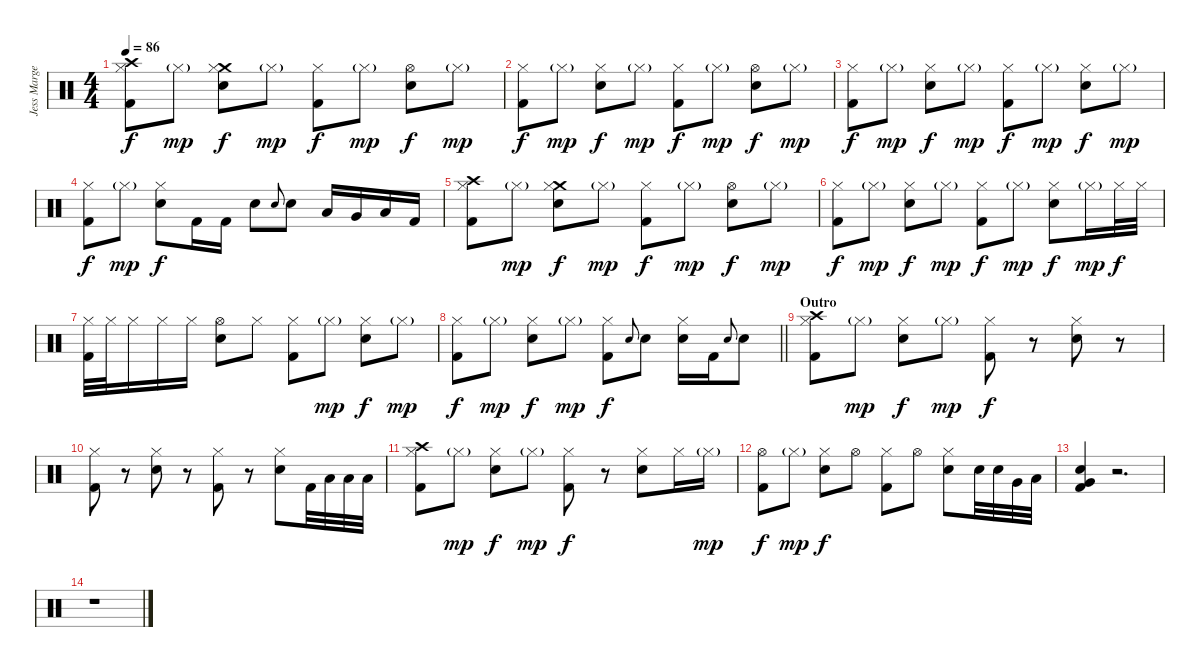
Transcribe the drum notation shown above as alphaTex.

\track ("Jess Margera (Drums)" "Jess Marge") {instrument percussion}
\staff {score}
\articulation defaults
\ts (4 4)
\tempo 86
\clef neutral
\ks c
("Crash high (hit)" "Hi-Hat (closed)" "Kick (hit) 2").8{dy f} "Hi-Hat (closed)"{g}.8{dy mp} ("Crash medium (hit)" "Hi-Hat (closed)" "Snare (hit) 2").8{dy f} "Hi-Hat (closed)"{g}.8{dy mp} ("Hi-Hat (closed)" "Kick (hit) 2").8{dy f} "Hi-Hat (closed)"{g}.8{dy mp} ("Hi-Hat (open)" "Snare (hit) 2").8{dy f} "Hi-Hat (closed)"{g}.8{dy mp} |
("Hi-Hat (closed)" "Kick (hit) 2").8{dy f} "Hi-Hat (closed)"{g}.8{dy mp} ("Hi-Hat (closed)" "Snare (hit) 2").8{dy f} "Hi-Hat (closed)"{g}.8{dy mp} ("Hi-Hat (closed)" "Kick (hit) 2").8{dy f} "Hi-Hat (closed)"{g}.8{dy mp} ("Hi-Hat (open)" "Snare (hit) 2").8{dy f} "Hi-Hat (closed)"{g}.8{dy mp} |
("Hi-Hat (closed)" "Kick (hit) 2").8{dy f} "Hi-Hat (closed)"{g}.8{dy mp} ("Hi-Hat (closed)" "Snare (hit) 2").8{dy f} "Hi-Hat (closed)"{g}.8{dy mp} ("Hi-Hat (closed)" "Kick (hit) 2").8{dy f} "Hi-Hat (closed)"{g}.8{dy mp} ("Hi-Hat (closed)" "Snare (hit) 2").8{dy f} "Hi-Hat (closed)"{g}.8{dy mp} |
("Hi-Hat (closed)" "Kick (hit) 2").8{dy f} "Hi-Hat (closed)"{g}.8{dy mp} ("Hi-Hat (closed)" "Snare (hit) 2").8{dy f} "Kick (hit) 2".16 "Kick (hit) 2".16 "Snare (hit) 2".8 "Snare (hit) 2".8{gr onbeat} "Snare (hit) 2".8 "Low Tom (hit)".16 "Very Low Tom (hit)".16 "Low Floor Tom (hit)".16 "Kick (hit) 2".16 |
("Crash high (hit)" "Hi-Hat (closed)" "Kick (hit) 2").8 "Hi-Hat (closed)"{g}.8{dy mp} ("Crash medium (hit)" "Hi-Hat (closed)" "Snare (hit) 2").8{dy f} "Hi-Hat (closed)"{g}.8{dy mp} ("Hi-Hat (closed)" "Kick (hit) 2").8{dy f} "Hi-Hat (closed)"{g}.8{dy mp} ("Hi-Hat (open)" "Snare (hit) 2").8{dy f} "Hi-Hat (closed)"{g}.8{dy mp} |
("Hi-Hat (closed)" "Kick (hit) 2").8{dy f} "Hi-Hat (closed)"{g}.8{dy mp} ("Hi-Hat (closed)" "Snare (hit) 2").8{dy f} "Hi-Hat (closed)"{g}.8{dy mp} ("Hi-Hat (closed)" "Kick (hit) 2").8{dy f} "Hi-Hat (closed)"{g}.8{dy mp} ("Hi-Hat (closed)" "Snare (hit) 2").8{dy f} "Hi-Hat (closed)"{g}.16{dy mp} "Hi-Hat (closed)".32{dy f} "Hi-Hat (closed)".32 |
("Hi-Hat (closed)" "Kick (hit) 2").32 "Hi-Hat (closed)".32 "Hi-Hat (closed)".16 "Hi-Hat (closed)".16 "Hi-Hat (closed)".16 ("Hi-Hat (open)" "Snare (hit) 2").8 "Hi-Hat (closed)".8 ("Hi-Hat (closed)" "Kick (hit) 2").8 "Hi-Hat (closed)"{g}.8{dy mp} ("Hi-Hat (closed)" "Snare (hit) 2").8{dy f} "Hi-Hat (closed)"{g}.8{dy mp} |
\barLineRight lightlight
("Hi-Hat (closed)" "Kick (hit) 2").8{dy f} "Hi-Hat (closed)"{g}.8{dy mp} ("Hi-Hat (closed)" "Snare (hit) 2").8{dy f} "Hi-Hat (closed)"{g}.8{dy mp} ("Hi-Hat (closed)" "Kick (hit) 2").8{dy f} "Snare (hit) 2".8{gr onbeat} "Snare (hit) 2".8 ("Hi-Hat (closed)" "Snare (hit) 2").16 "Kick (hit) 2".16 "Snare (hit) 2".8{gr onbeat} "Snare (hit) 2".8 |
\section ("" "Outro")
("Crash high (hit)" "Hi-Hat (closed)" "Kick (hit) 2").8 "Hi-Hat (closed)"{g}.8{dy mp} ("Hi-Hat (closed)" "Snare (hit) 2").8{dy f} "Hi-Hat (closed)"{g}.8{dy mp} ("Hi-Hat (closed)" "Kick (hit) 2").8{dy f} r.8 ("Hi-Hat (closed)" "Snare (hit) 2").8 r.8 |
("Hi-Hat (closed)" "Kick (hit) 2").8 r.8 ("Hi-Hat (closed)" "Snare (hit) 2").8 r.8 ("Hi-Hat (closed)" "Kick (hit) 2").8 r.8 ("Hi-Hat (closed)" "Snare (hit) 2").8 "Kick (hit) 2".32 "Low Floor Tom (hit)".32 "Low Floor Tom (hit)".32 "Low Floor Tom (hit)".32 |
("Crash high (hit)" "Hi-Hat (closed)" "Kick (hit) 2").8 "Hi-Hat (closed)"{g}.8{dy mp} ("Hi-Hat (closed)" "Snare (hit) 2").8{dy f} "Hi-Hat (closed)"{g}.8{dy mp} ("Hi-Hat (closed)" "Kick (hit) 2").8{dy f} r.8 ("Hi-Hat (closed)" "Snare (hit) 2").8 "Hi-Hat (closed)".16 "Hi-Hat (closed)"{g}.16{dy mp} |
("Hi-Hat (open)" "Kick (hit) 2").8{dy f} "Hi-Hat (closed)"{g}.8{dy mp} ("Hi-Hat (closed)" "Snare (hit) 2").8{dy f} "Hi-Hat (open)".8 ("Hi-Hat (closed)" "Kick (hit) 2").8 "Hi-Hat (open)".8 ("Hi-Hat (closed)" "Snare (hit) 2").8 "Snare (hit) 2".32 "Snare (hit) 2".32 "Very Low Tom (hit)".32 "Low Floor Tom (hit)".32 |
("Very Low Tom (hit)" "Snare (hit) 2" "Kick (hit) 2").4 r.2{d} |
r.1
